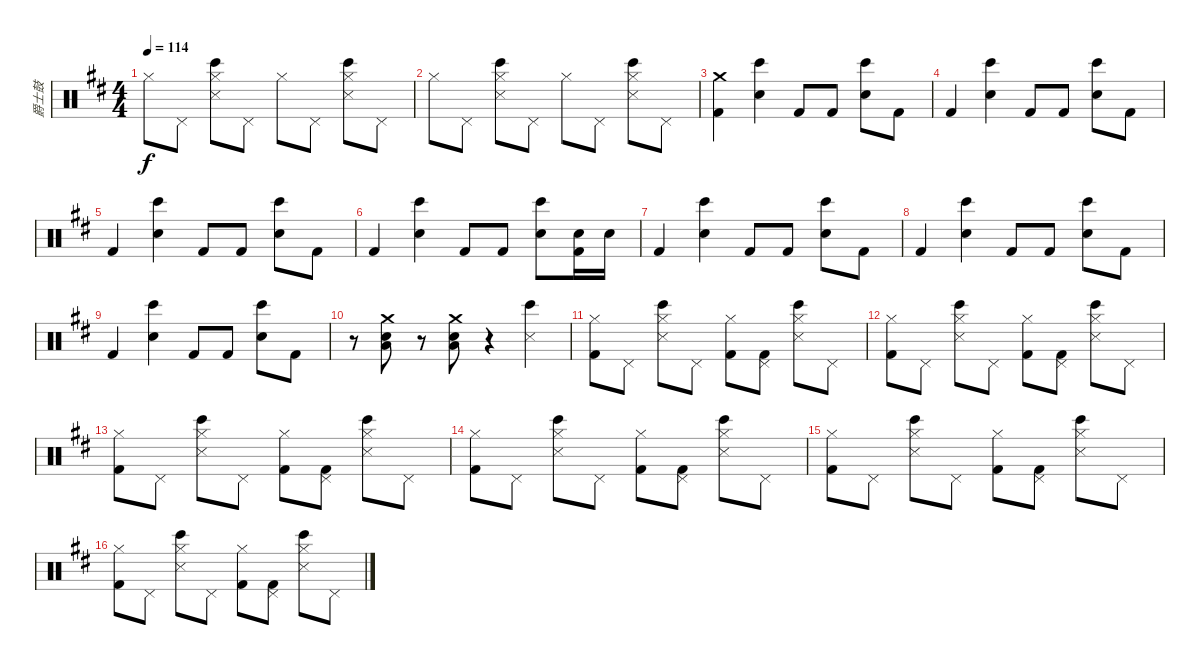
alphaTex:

\track ("爵士鼓" "爵士鼓") {instrument percussion}
\staff {score}
\articulation defaults
\ts (4 4)
\tempo 114
\clef neutral
\ks d "Hi-Hat (closed)".8{dy f} "Pedal Hi-Hat (hit)".8
("Hi-Hat (closed)" "Snare (side stick) 3" "Bongo High (hit)").8 "Pedal Hi-Hat (hit)".8 "Hi-Hat (closed)".8 "Pedal Hi-Hat (hit)".8 ("Hi-Hat (closed)" "Snare (side stick) 3" "Bongo High (hit)").8 "Pedal Hi-Hat (hit)".8 |
"Hi-Hat (closed)".8 "Pedal Hi-Hat (hit)".8 ("Hi-Hat (closed)" "Snare (side stick) 3" "Bongo High (hit)").8 "Pedal Hi-Hat (hit)".8 "Hi-Hat (closed)".8 "Pedal Hi-Hat (hit)".8 ("Hi-Hat (closed)" "Snare (side stick) 3" "Bongo High (hit)").8 "Pedal Hi-Hat (hit)".8 |
("Crash medium (hit)" "Kick (hit) 2").4{volume 14} ("Snare (hit) 2" "Bongo High (hit)").4 "Kick (hit) 2".8 "Kick (hit) 2".8 ("Snare (hit) 2" "Bongo High (hit)").8 "Kick (hit) 2".8 |
"Kick (hit) 2".4 ("Snare (hit) 2" "Bongo High (hit)").4 "Kick (hit) 2".8 "Kick (hit) 2".8 ("Snare (hit) 2" "Bongo High (hit)").8 "Kick (hit) 2".8 |
"Kick (hit) 2".4 ("Snare (hit) 2" "Bongo High (hit)").4 "Kick (hit) 2".8 "Kick (hit) 2".8 ("Snare (hit) 2" "Bongo High (hit)").8 "Kick (hit) 2".8 |
"Kick (hit) 2".4 ("Snare (hit) 2" "Bongo High (hit)").4 "Kick (hit) 2".8 "Kick (hit) 2".8 ("Snare (hit) 2" "Bongo High (hit)").8 ("Kick (hit) 2" "Snare (hit) 2").16 "Snare (hit) 2".16 |
"Kick (hit) 2".4 ("Snare (hit) 2" "Bongo High (hit)").4 "Kick (hit) 2".8 "Kick (hit) 2".8 ("Snare (hit) 2" "Bongo High (hit)").8 "Kick (hit) 2".8 |
"Kick (hit) 2".4 ("Snare (hit) 2" "Bongo High (hit)").4 "Kick (hit) 2".8 "Kick (hit) 2".8 ("Snare (hit) 2" "Bongo High (hit)").8 "Kick (hit) 2".8 |
"Kick (hit) 2".4 ("Snare (hit) 2" "Bongo High (hit)").4 "Kick (hit) 2".8 "Kick (hit) 2".8 ("Snare (hit) 2" "Bongo High (hit)").8 "Kick (hit) 2".8 |
r.8 ("Crash medium (hit)" "Low Tom (hit)" "Electric Snare (hit)").8 r.8 ("Crash medium (hit)" "Low Tom (hit)" "Electric Snare (hit)").8 r.4 ("Snare (side stick) 3" "Bongo High (hit)").4 |
("Hi-Hat (closed)" "Kick (hit) 2").8{volume 10} "Pedal Hi-Hat (hit)".8 ("Hi-Hat (closed)" "Snare (side stick) 3" "Bongo High (hit)").8 "Pedal Hi-Hat (hit)".8 ("Hi-Hat (closed)" "Kick (hit) 2").8 ("Pedal Hi-Hat (hit)" "Kick (hit) 2").8 ("Hi-Hat (closed)" "Snare (side stick) 3" "Bongo High (hit)").8 "Pedal Hi-Hat (hit)".8 |
("Hi-Hat (closed)" "Kick (hit) 2").8 "Pedal Hi-Hat (hit)".8 ("Hi-Hat (closed)" "Snare (side stick) 3" "Bongo High (hit)").8 "Pedal Hi-Hat (hit)".8 ("Hi-Hat (closed)" "Kick (hit) 2").8 ("Pedal Hi-Hat (hit)" "Kick (hit) 2").8 ("Hi-Hat (closed)" "Snare (side stick) 3" "Bongo High (hit)").8 "Pedal Hi-Hat (hit)".8 |
("Hi-Hat (closed)" "Kick (hit) 2").8 "Pedal Hi-Hat (hit)".8 ("Hi-Hat (closed)" "Snare (side stick) 3" "Bongo High (hit)").8 "Pedal Hi-Hat (hit)".8 ("Hi-Hat (closed)" "Kick (hit) 2").8 ("Pedal Hi-Hat (hit)" "Kick (hit) 2").8 ("Hi-Hat (closed)" "Snare (side stick) 3" "Bongo High (hit)").8 "Pedal Hi-Hat (hit)".8 |
("Hi-Hat (closed)" "Kick (hit) 2").8 "Pedal Hi-Hat (hit)".8 ("Hi-Hat (closed)" "Snare (side stick) 3" "Bongo High (hit)").8 "Pedal Hi-Hat (hit)".8 ("Hi-Hat (closed)" "Kick (hit) 2").8 ("Pedal Hi-Hat (hit)" "Kick (hit) 2").8 ("Hi-Hat (closed)" "Snare (side stick) 3" "Bongo High (hit)").8 "Pedal Hi-Hat (hit)".8 |
("Hi-Hat (closed)" "Kick (hit) 2").8 "Pedal Hi-Hat (hit)".8 ("Hi-Hat (closed)" "Snare (side stick) 3" "Bongo High (hit)").8 "Pedal Hi-Hat (hit)".8 ("Hi-Hat (closed)" "Kick (hit) 2").8 ("Pedal Hi-Hat (hit)" "Kick (hit) 2").8 ("Hi-Hat (closed)" "Snare (side stick) 3" "Bongo High (hit)").8 "Pedal Hi-Hat (hit)".8 |
("Hi-Hat (closed)" "Kick (hit) 2").8 "Pedal Hi-Hat (hit)".8 ("Hi-Hat (closed)" "Snare (side stick) 3" "Bongo High (hit)").8 "Pedal Hi-Hat (hit)".8 ("Hi-Hat (closed)" "Kick (hit) 2").8 ("Pedal Hi-Hat (hit)" "Kick (hit) 2").8 ("Hi-Hat (closed)" "Snare (side stick) 3" "Bongo High (hit)").8 "Pedal Hi-Hat (hit)".8
